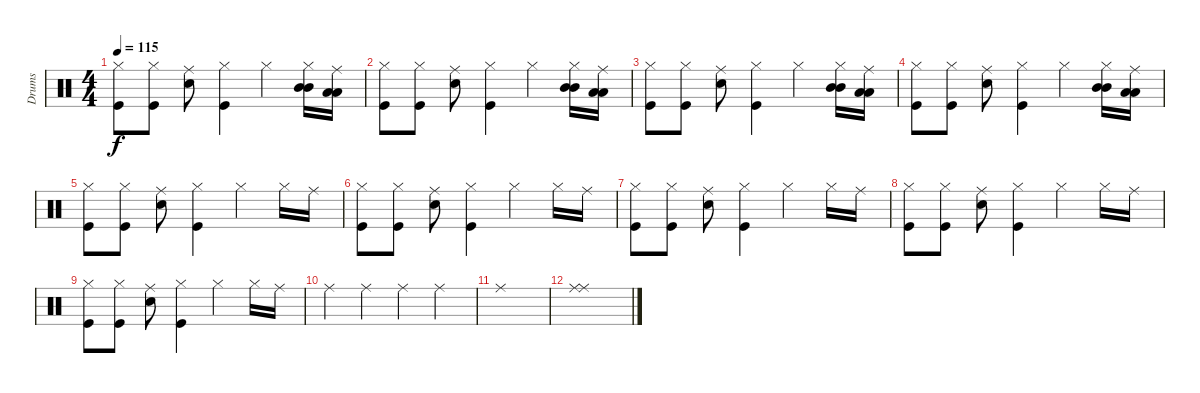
\track ("Drums" "Drums") {instrument percussion}
\staff {score}
\articulation defaults
\ts (4 4)
\tempo 115
\clef neutral
\ks c
("Hi-Hat (closed)" "Kick (hit)").8{dy f} ("Hi-Hat (closed)" "Kick (hit)").8 ("Ride (middle)" "Electric Snare (hit)").8 ("Hi-Hat (closed)" "Kick (hit)").4 "Hi-Hat (closed)".4 ("Hi-Hat (closed)" "Mid Tom (hit)" "Mid Tom (hit)").16 ("Ride (middle)" "Low Tom (hit)" "Low Tom (hit)").16 |
("Hi-Hat (closed)" "Kick (hit)").8 ("Hi-Hat (closed)" "Kick (hit)").8 ("Ride (middle)" "Electric Snare (hit)").8 ("Hi-Hat (closed)" "Kick (hit)").4 "Hi-Hat (closed)".4 ("Hi-Hat (closed)" "Mid Tom (hit)" "Mid Tom (hit)").16 ("Ride (middle)" "Low Tom (hit)" "Low Tom (hit)").16 |
("Hi-Hat (closed)" "Kick (hit)").8 ("Hi-Hat (closed)" "Kick (hit)").8 ("Ride (middle)" "Electric Snare (hit)").8 ("Hi-Hat (closed)" "Kick (hit)").4 "Hi-Hat (closed)".4 ("Hi-Hat (closed)" "Mid Tom (hit)" "Mid Tom (hit)").16 ("Ride (middle)" "Low Tom (hit)" "Low Tom (hit)").16 |
("Hi-Hat (closed)" "Kick (hit)").8 ("Hi-Hat (closed)" "Kick (hit)").8 ("Ride (middle)" "Electric Snare (hit)").8 ("Hi-Hat (closed)" "Kick (hit)").4 "Hi-Hat (closed)".4 ("Hi-Hat (closed)" "Mid Tom (hit)" "Mid Tom (hit)").16 ("Ride (middle)" "Low Tom (hit)" "Low Tom (hit)").16 |
("Hi-Hat (closed)" "Kick (hit)").8 ("Hi-Hat (closed)" "Kick (hit)").8 ("Ride (middle)" "Electric Snare (hit)").8 ("Hi-Hat (closed)" "Kick (hit)").4 "Hi-Hat (closed)".4 "Hi-Hat (closed)".16 "Ride (middle)".16 |
("Hi-Hat (closed)" "Kick (hit)").8 ("Hi-Hat (closed)" "Kick (hit)").8 ("Ride (middle)" "Electric Snare (hit)").8 ("Hi-Hat (closed)" "Kick (hit)").4 "Hi-Hat (closed)".4 "Hi-Hat (closed)".16 "Ride (middle)".16 |
("Hi-Hat (closed)" "Kick (hit)").8 ("Hi-Hat (closed)" "Kick (hit)").8 ("Ride (middle)" "Electric Snare (hit)").8 ("Hi-Hat (closed)" "Kick (hit)").4 "Hi-Hat (closed)".4 "Hi-Hat (closed)".16 "Ride (middle)".16 |
("Hi-Hat (closed)" "Kick (hit)").8 ("Hi-Hat (closed)" "Kick (hit)").8 ("Ride (middle)" "Electric Snare (hit)").8 ("Hi-Hat (closed)" "Kick (hit)").4 "Hi-Hat (closed)".4 "Hi-Hat (closed)".16 "Ride (middle)".16 |
("Hi-Hat (closed)" "Kick (hit)").8 ("Hi-Hat (closed)" "Kick (hit)").8 ("Ride (middle)" "Electric Snare (hit)").8 ("Hi-Hat (closed)" "Kick (hit)").4 "Hi-Hat (closed)".4 "Hi-Hat (closed)".16 "Ride (middle)".16 |
"Ride (middle)".4 "Ride (middle)".4 "Ride (middle)".4 "Ride (middle)".4 |
"Ride (middle)".1 |
("Ride (middle)" "Ride (middle)").1
